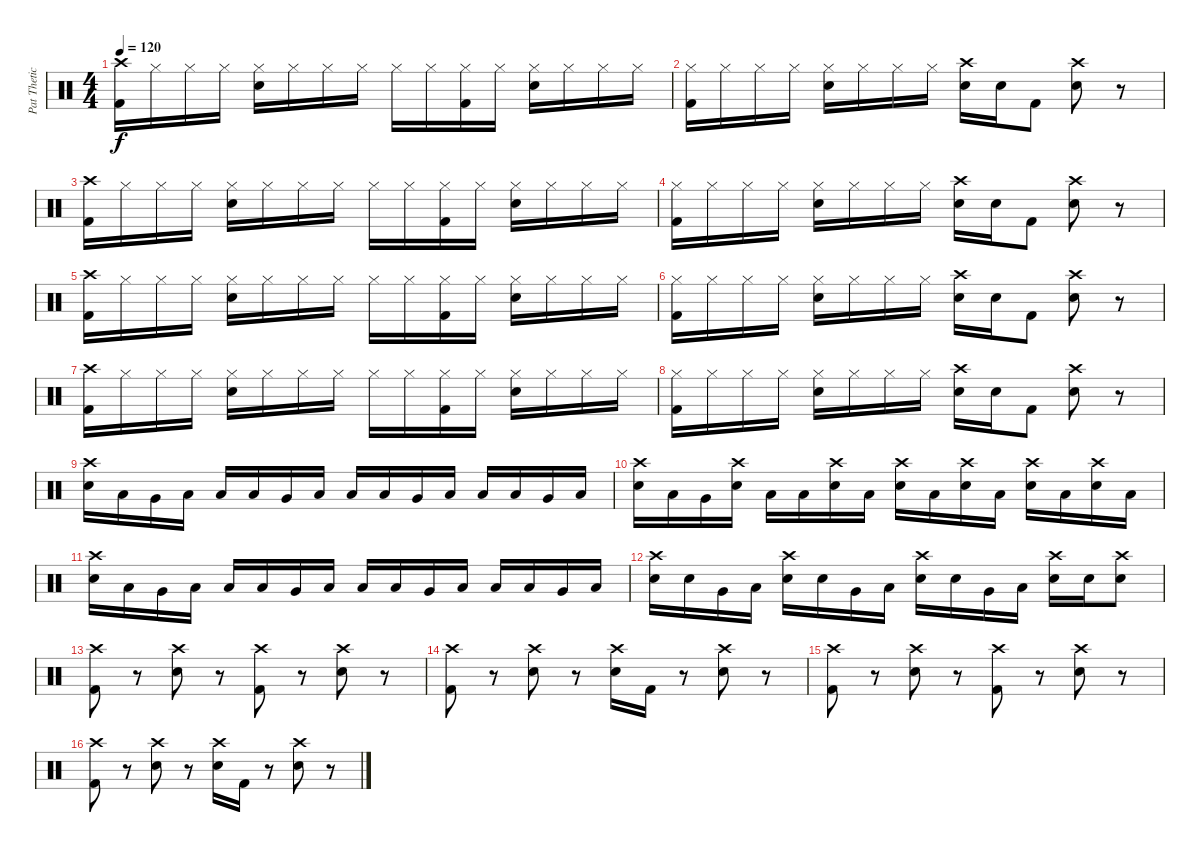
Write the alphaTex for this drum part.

\track ("Pat Thetic" "Pat Thetic") {instrument percussion}
\staff {score}
\articulation defaults
\ts (4 4)
\tempo 120
\clef neutral
\ks c
("Crash high (hit)" "Kick (hit) 2").16{dy f} "Hi-Hat (closed)".16 "Hi-Hat (closed)".16 "Hi-Hat (closed)".16 ("Hi-Hat (closed)" "Electric Snare (hit)").16 "Hi-Hat (closed)".16 "Hi-Hat (closed)".16 "Hi-Hat (closed)".16 "Hi-Hat (closed)".16 "Hi-Hat (closed)".16 ("Hi-Hat (closed)" "Kick (hit) 2").16 "Hi-Hat (closed)".16 ("Hi-Hat (closed)" "Electric Snare (hit)").16 "Hi-Hat (closed)".16 "Hi-Hat (closed)".16 "Hi-Hat (closed)".16 |
("Hi-Hat (closed)" "Kick (hit) 2").16 "Hi-Hat (closed)".16 "Hi-Hat (closed)".16 "Hi-Hat (closed)".16 ("Hi-Hat (closed)" "Electric Snare (hit)").16 "Hi-Hat (closed)".16 "Hi-Hat (closed)".16 "Hi-Hat (closed)".16 ("Crash high (hit)" "Electric Snare (hit)").16 "Electric Snare (hit)".16 "Kick (hit) 2".8 ("Crash high (hit)" "Electric Snare (hit)").8 r.8 |
("Crash high (hit)" "Kick (hit) 2").16 "Hi-Hat (closed)".16 "Hi-Hat (closed)".16 "Hi-Hat (closed)".16 ("Hi-Hat (closed)" "Electric Snare (hit)").16 "Hi-Hat (closed)".16 "Hi-Hat (closed)".16 "Hi-Hat (closed)".16 "Hi-Hat (closed)".16 "Hi-Hat (closed)".16 ("Hi-Hat (closed)" "Kick (hit) 2").16 "Hi-Hat (closed)".16 ("Hi-Hat (closed)" "Electric Snare (hit)").16 "Hi-Hat (closed)".16 "Hi-Hat (closed)".16 "Hi-Hat (closed)".16 |
("Hi-Hat (closed)" "Kick (hit) 2").16 "Hi-Hat (closed)".16 "Hi-Hat (closed)".16 "Hi-Hat (closed)".16 ("Hi-Hat (closed)" "Electric Snare (hit)").16 "Hi-Hat (closed)".16 "Hi-Hat (closed)".16 "Hi-Hat (closed)".16 ("Crash high (hit)" "Electric Snare (hit)").16 "Electric Snare (hit)".16 "Kick (hit) 2".8 ("Crash high (hit)" "Electric Snare (hit)").8 r.8 |
("Crash high (hit)" "Kick (hit) 2").16 "Hi-Hat (closed)".16 "Hi-Hat (closed)".16 "Hi-Hat (closed)".16 ("Hi-Hat (closed)" "Electric Snare (hit)").16 "Hi-Hat (closed)".16 "Hi-Hat (closed)".16 "Hi-Hat (closed)".16 "Hi-Hat (closed)".16 "Hi-Hat (closed)".16 ("Hi-Hat (closed)" "Kick (hit) 2").16 "Hi-Hat (closed)".16 ("Hi-Hat (closed)" "Electric Snare (hit)").16 "Hi-Hat (closed)".16 "Hi-Hat (closed)".16 "Hi-Hat (closed)".16 |
("Hi-Hat (closed)" "Kick (hit) 2").16 "Hi-Hat (closed)".16 "Hi-Hat (closed)".16 "Hi-Hat (closed)".16 ("Hi-Hat (closed)" "Electric Snare (hit)").16 "Hi-Hat (closed)".16 "Hi-Hat (closed)".16 "Hi-Hat (closed)".16 ("Crash high (hit)" "Electric Snare (hit)").16 "Electric Snare (hit)".16 "Kick (hit) 2".8 ("Crash high (hit)" "Electric Snare (hit)").8 r.8 |
("Crash high (hit)" "Kick (hit) 2").16 "Hi-Hat (closed)".16 "Hi-Hat (closed)".16 "Hi-Hat (closed)".16 ("Hi-Hat (closed)" "Electric Snare (hit)").16 "Hi-Hat (closed)".16 "Hi-Hat (closed)".16 "Hi-Hat (closed)".16 "Hi-Hat (closed)".16 "Hi-Hat (closed)".16 ("Hi-Hat (closed)" "Kick (hit) 2").16 "Hi-Hat (closed)".16 ("Hi-Hat (closed)" "Electric Snare (hit)").16 "Hi-Hat (closed)".16 "Hi-Hat (closed)".16 "Hi-Hat (closed)".16 |
("Hi-Hat (closed)" "Kick (hit) 2").16 "Hi-Hat (closed)".16 "Hi-Hat (closed)".16 "Hi-Hat (closed)".16 ("Hi-Hat (closed)" "Electric Snare (hit)").16 "Hi-Hat (closed)".16 "Hi-Hat (closed)".16 "Hi-Hat (closed)".16 ("Crash high (hit)" "Electric Snare (hit)").16 "Electric Snare (hit)".16 "Kick (hit) 2".8 ("Crash high (hit)" "Electric Snare (hit)").8 r.8 |
("Crash high (hit)" "Electric Snare (hit)").16 "Low Floor Tom (hit)".16 "Very Low Tom (hit)".16 "Low Floor Tom (hit)".16 "Low Floor Tom (hit)".16 "Low Floor Tom (hit)".16 "Very Low Tom (hit)".16 "Low Floor Tom (hit)".16 "Low Floor Tom (hit)".16 "Low Floor Tom (hit)".16 "Very Low Tom (hit)".16 "Low Floor Tom (hit)".16 "Low Floor Tom (hit)".16 "Low Floor Tom (hit)".16 "Very Low Tom (hit)".16 "Low Floor Tom (hit)".16 |
("Crash high (hit)" "Electric Snare (hit)").16 "Low Floor Tom (hit)".16 "Very Low Tom (hit)".16 ("Crash high (hit)" "Electric Snare (hit)").16 "Low Floor Tom (hit)".16 "Low Floor Tom (hit)".16 ("Crash high (hit)" "Electric Snare (hit)").16 "Low Floor Tom (hit)".16 ("Crash high (hit)" "Electric Snare (hit)").16 "Low Floor Tom (hit)".16 ("Crash high (hit)" "Electric Snare (hit)").16 "Low Floor Tom (hit)".16 ("Crash high (hit)" "Electric Snare (hit)").16 "Low Floor Tom (hit)".16 ("Crash high (hit)" "Electric Snare (hit)").16 "Low Floor Tom (hit)".16 |
("Crash high (hit)" "Electric Snare (hit)").16 "Low Floor Tom (hit)".16 "Very Low Tom (hit)".16 "Low Floor Tom (hit)".16 "Low Floor Tom (hit)".16 "Low Floor Tom (hit)".16 "Very Low Tom (hit)".16 "Low Floor Tom (hit)".16 "Low Floor Tom (hit)".16 "Low Floor Tom (hit)".16 "Very Low Tom (hit)".16 "Low Floor Tom (hit)".16 "Low Floor Tom (hit)".16 "Low Floor Tom (hit)".16 "Very Low Tom (hit)".16 "Low Floor Tom (hit)".16 |
("Crash high (hit)" "Electric Snare (hit)").16 "Electric Snare (hit)".16 "Very Low Tom (hit)".16 "Low Floor Tom (hit)".16 ("Crash high (hit)" "Electric Snare (hit)").16 "Electric Snare (hit)".16 "Very Low Tom (hit)".16 "Low Floor Tom (hit)".16 ("Crash high (hit)" "Electric Snare (hit)").16 "Electric Snare (hit)".16 "Very Low Tom (hit)".16 "Low Floor Tom (hit)".16 ("Crash high (hit)" "Electric Snare (hit)").16 "Electric Snare (hit)".16 ("Crash high (hit)" "Electric Snare (hit)").8 |
("Crash high (hit)" "Kick (hit) 2").8 r.8 ("Crash high (hit)" "Electric Snare (hit)").8 r.8 ("Crash high (hit)" "Kick (hit) 2").8 r.8 ("Crash high (hit)" "Electric Snare (hit)").8 r.8 |
("Crash high (hit)" "Kick (hit) 2").8 r.8 ("Crash high (hit)" "Electric Snare (hit)").8 r.8 ("Crash high (hit)" "Electric Snare (hit)").16 "Kick (hit) 2".16 r.8 ("Crash high (hit)" "Electric Snare (hit)").8 r.8 |
("Crash high (hit)" "Kick (hit) 2").8 r.8 ("Crash high (hit)" "Electric Snare (hit)").8 r.8 ("Crash high (hit)" "Kick (hit) 2").8 r.8 ("Crash high (hit)" "Electric Snare (hit)").8 r.8 |
("Crash high (hit)" "Kick (hit) 2").8 r.8 ("Crash high (hit)" "Electric Snare (hit)").8 r.8 ("Crash high (hit)" "Electric Snare (hit)").16 "Kick (hit) 2".16 r.8 ("Crash high (hit)" "Electric Snare (hit)").8 r.8
